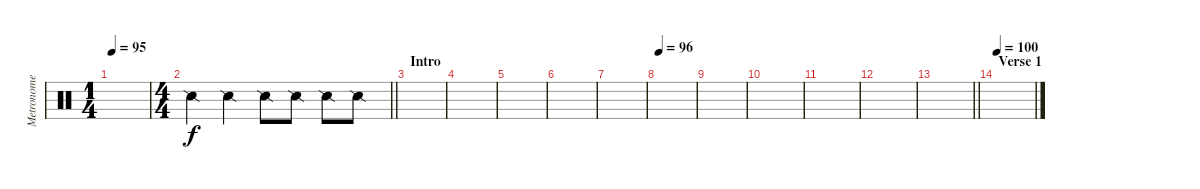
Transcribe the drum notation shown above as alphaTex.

\track ("Metronome" "Metronome") {instrument percussion}
\staff {score}
\articulation defaults
\ts (1 4)
\tempo 95
\clef neutral
\ks c
|
\ts (4 4)
\barLineRight lightlight "Snare (side stick) 2".4 "Snare (side stick) 2".4 "Snare (side stick) 2".8 "Snare (side stick) 2".8 "Snare (side stick) 2".8 "Snare (side stick) 2".8
|
\section ("" "Intro")
|
|
|
|
|
\tempo 96
|
|
|
|
|
\barLineRight lightlight
|
\section ("" "Verse 1")
\tempo 100
